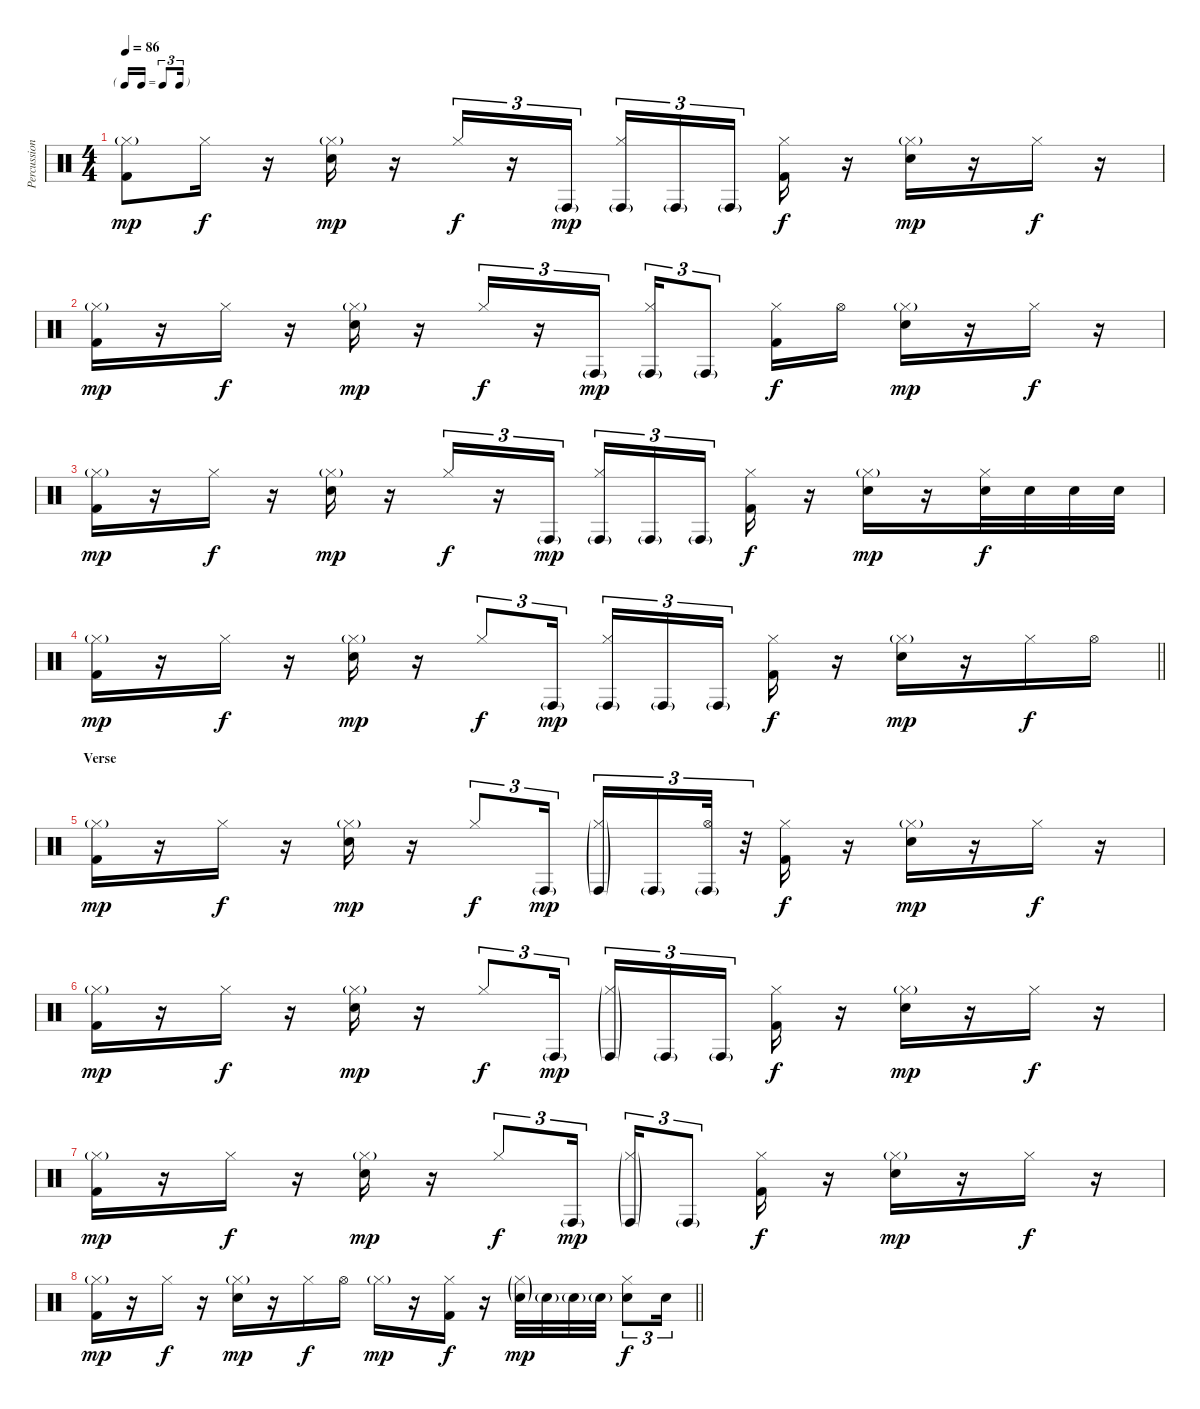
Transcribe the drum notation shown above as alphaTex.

\track ("Percussion" "Percussion") {instrument percussion}
\staff {score}
\articulation defaults
\ts (4 4)
\tf triplet16th
\tempo 86
\clef neutral
\ks c
("Hi-Hat (closed)"{g} "Kick (hit) 2").8{dy mp} "Hi-Hat (closed)".16{dy f} r.16 ("Hi-Hat (closed)"{g} "Electric Snare (hit)").16{dy mp} r.16 "Hi-Hat (closed)".16{tu (3 2) dy f} r.16{tu (3 2)} "Conga high (hit)"{g}.16{tu (3 2) dy mp} ("Conga high (hit)"{g} "Hi-Hat (closed)").16{tu (3 2)} "Conga high (hit)"{g}.16{tu (3 2)} "Conga high (hit)"{g}.16{tu (3 2) beam splitsecondary} ("Hi-Hat (closed)" "Kick (hit) 2").16{dy f} r.16 ("Hi-Hat (closed)"{g} "Electric Snare (hit)").16{dy mp} r.16 "Hi-Hat (closed)".16{dy f} r.16 |
("Hi-Hat (closed)"{g} "Kick (hit) 2").16{dy mp} r.16 "Hi-Hat (closed)".16{dy f} r.16 ("Hi-Hat (closed)"{g} "Electric Snare (hit)").16{dy mp} r.16 "Hi-Hat (closed)".16{tu (3 2) dy f} r.16{tu (3 2)} "Conga high (hit)"{g}.16{tu (3 2) dy mp} ("Conga high (hit)"{g} "Hi-Hat (closed)").16{tu (3 2)} "Conga high (hit)"{g}.8{tu (3 2)} ("Hi-Hat (closed)" "Kick (hit) 2").16{dy f} "Hi-Hat (open)".16 ("Hi-Hat (closed)"{g} "Electric Snare (hit)").16{dy mp} r.16 "Hi-Hat (closed)".16{dy f} r.16 |
("Hi-Hat (closed)"{g} "Kick (hit) 2").16{dy mp} r.16 "Hi-Hat (closed)".16{dy f} r.16 ("Hi-Hat (closed)"{g} "Electric Snare (hit)").16{dy mp} r.16 "Hi-Hat (closed)".16{tu (3 2) dy f} r.16{tu (3 2)} "Conga high (hit)"{g}.16{tu (3 2) dy mp} ("Conga high (hit)"{g} "Hi-Hat (closed)").16{tu (3 2)} "Conga high (hit)"{g}.16{tu (3 2)} "Conga high (hit)"{g}.16{tu (3 2) beam splitsecondary} ("Hi-Hat (closed)" "Kick (hit) 2").16{dy f} r.16 ("Hi-Hat (closed)"{g} "Electric Snare (hit)").16{dy mp} r.16 ("Hi-Hat (closed)" "Electric Snare (hit)").32{dy f} "Electric Snare (hit)".32 "Electric Snare (hit)".32 "Electric Snare (hit)".32 |
\barLineRight lightlight
("Hi-Hat (closed)"{g} "Kick (hit) 2").16{dy mp} r.16 "Hi-Hat (closed)".16{dy f} r.16 ("Hi-Hat (closed)"{g} "Electric Snare (hit)").16{dy mp} r.16 "Hi-Hat (closed)".8{tu (3 2) dy f} "Conga high (hit)"{g}.16{tu (3 2) dy mp} ("Conga high (hit)"{g} "Hi-Hat (closed)").16{tu (3 2)} "Conga high (hit)"{g}.16{tu (3 2)} "Conga high (hit)"{g}.16{tu (3 2) beam splitsecondary} ("Hi-Hat (closed)" "Kick (hit) 2").16{dy f} r.16 ("Hi-Hat (closed)"{g} "Electric Snare (hit)").16{dy mp} r.16 "Hi-Hat (closed)".16{dy f} "Hi-Hat (open)".16 |
\section ("" "Verse")
("Hi-Hat (closed)"{g} "Kick (hit) 2").16{dy mp} r.16 "Hi-Hat (closed)".16{dy f} r.16 ("Hi-Hat (closed)"{g} "Electric Snare (hit)").16{dy mp} r.16 "Hi-Hat (closed)".8{tu (3 2) dy f} "Conga high (hit)"{g}.16{tu (3 2) dy mp} ("Conga high (hit)"{g} "Hi-Hat (closed)"{g}).16{tu (3 2)} "Conga high (hit)"{g}.16{tu (3 2)} ("Conga high (hit)"{g} "Hi-Hat (open)").32{tu (3 2)} r.32{tu (3 2)} ("Hi-Hat (closed)" "Kick (hit) 2").16{dy f} r.16 ("Hi-Hat (closed)"{g} "Electric Snare (hit)").16{dy mp} r.16 "Hi-Hat (closed)".16{dy f} r.16 |
("Hi-Hat (closed)"{g} "Kick (hit) 2").16{dy mp} r.16 "Hi-Hat (closed)".16{dy f} r.16 ("Hi-Hat (closed)"{g} "Electric Snare (hit)").16{dy mp} r.16 "Hi-Hat (closed)".8{tu (3 2) dy f} "Conga high (hit)"{g}.16{tu (3 2) dy mp} ("Conga high (hit)"{g} "Hi-Hat (closed)"{g}).16{tu (3 2)} "Conga high (hit)"{g}.16{tu (3 2)} "Conga high (hit)"{g}.16{tu (3 2) beam splitsecondary} ("Hi-Hat (closed)" "Kick (hit) 2").16{dy f} r.16 ("Hi-Hat (closed)"{g} "Electric Snare (hit)").16{dy mp} r.16 "Hi-Hat (closed)".16{dy f} r.16 |
("Hi-Hat (closed)"{g} "Kick (hit) 2").16{dy mp} r.16 "Hi-Hat (closed)".16{dy f} r.16 ("Hi-Hat (closed)"{g} "Electric Snare (hit)").16{dy mp} r.16 "Hi-Hat (closed)".8{tu (3 2) dy f} "Conga high (hit)"{g}.16{tu (3 2) dy mp} ("Conga high (hit)"{g} "Hi-Hat (closed)"{g}).16{tu (3 2)} "Conga high (hit)"{g}.8{tu (3 2)} ("Hi-Hat (closed)" "Kick (hit) 2").16{dy f} r.16 ("Hi-Hat (closed)"{g} "Electric Snare (hit)").16{dy mp} r.16 "Hi-Hat (closed)".16{dy f} r.16 |
\barLineRight lightlight
("Hi-Hat (closed)"{g} "Kick (hit) 2").16{dy mp} r.16 "Hi-Hat (closed)".16{dy f} r.16 ("Hi-Hat (closed)"{g} "Electric Snare (hit)").16{dy mp} r.16 "Hi-Hat (closed)".16{dy f} "Hi-Hat (open)".16 "Hi-Hat (closed)"{g}.16{dy mp} r.16 ("Hi-Hat (closed)" "Kick (hit) 2").16{dy f} r.16 ("Hi-Hat (closed)"{g} "Electric Snare (hit)"{g}).32{dy mp} "Electric Snare (hit)"{g}.32 "Electric Snare (hit)"{g}.32 "Electric Snare (hit)"{g}.32 ("Hi-Hat (closed)" "Electric Snare (hit)").8{tu (3 2) dy f} "Electric Snare (hit)".16{tu (3 2)}
